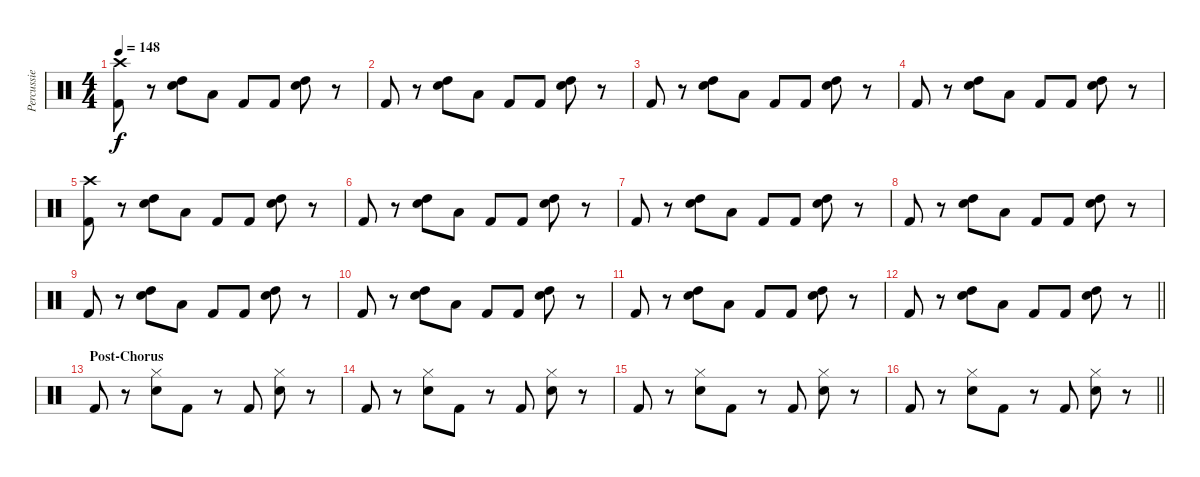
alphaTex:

\track ("Percussie" "Percussie") {instrument percussion}
\staff {score}
\articulation defaults
\ts (4 4)
\tempo 148
\clef neutral
\ks c
("Crash high (hit)" "Kick (hit) 2").8{dy f} r.8 ("Electric Snare (hit)" "High Tom (hit)").8 "Low Tom (hit)".8 "Kick (hit) 2".8 "Kick (hit) 2".8 ("Electric Snare (hit)" "High Tom (hit)").8 r.8 |
"Kick (hit) 2".8 r.8 ("Electric Snare (hit)" "High Tom (hit)").8 "Low Tom (hit)".8 "Kick (hit) 2".8 "Kick (hit) 2".8 ("Electric Snare (hit)" "High Tom (hit)").8 r.8 |
"Kick (hit) 2".8 r.8 ("Electric Snare (hit)" "High Tom (hit)").8 "Low Tom (hit)".8 "Kick (hit) 2".8 "Kick (hit) 2".8 ("Electric Snare (hit)" "High Tom (hit)").8 r.8 |
"Kick (hit) 2".8 r.8 ("Electric Snare (hit)" "High Tom (hit)").8 "Low Tom (hit)".8 "Kick (hit) 2".8 "Kick (hit) 2".8 ("Electric Snare (hit)" "High Tom (hit)").8 r.8 |
("Crash high (hit)" "Kick (hit) 2").8 r.8 ("Electric Snare (hit)" "High Tom (hit)").8 "Low Tom (hit)".8 "Kick (hit) 2".8 "Kick (hit) 2".8 ("Electric Snare (hit)" "High Tom (hit)").8 r.8 |
"Kick (hit) 2".8 r.8 ("Electric Snare (hit)" "High Tom (hit)").8 "Low Tom (hit)".8 "Kick (hit) 2".8 "Kick (hit) 2".8 ("Electric Snare (hit)" "High Tom (hit)").8 r.8 |
"Kick (hit) 2".8 r.8 ("Electric Snare (hit)" "High Tom (hit)").8 "Low Tom (hit)".8 "Kick (hit) 2".8 "Kick (hit) 2".8 ("Electric Snare (hit)" "High Tom (hit)").8 r.8 |
"Kick (hit) 2".8 r.8 ("Electric Snare (hit)" "High Tom (hit)").8 "Low Tom (hit)".8 "Kick (hit) 2".8 "Kick (hit) 2".8 ("Electric Snare (hit)" "High Tom (hit)").8 r.8 |
"Kick (hit) 2".8 r.8 ("Electric Snare (hit)" "High Tom (hit)").8 "Low Tom (hit)".8 "Kick (hit) 2".8 "Kick (hit) 2".8 ("Electric Snare (hit)" "High Tom (hit)").8 r.8 |
"Kick (hit) 2".8 r.8 ("Electric Snare (hit)" "High Tom (hit)").8 "Low Tom (hit)".8 "Kick (hit) 2".8 "Kick (hit) 2".8 ("Electric Snare (hit)" "High Tom (hit)").8 r.8 |
"Kick (hit) 2".8 r.8 ("Electric Snare (hit)" "High Tom (hit)").8 "Low Tom (hit)".8 "Kick (hit) 2".8 "Kick (hit) 2".8 ("Electric Snare (hit)" "High Tom (hit)").8 r.8 |
\barLineRight lightlight "Kick (hit) 2".8
r.8 ("Electric Snare (hit)" "High Tom (hit)").8 "Low Tom (hit)".8 "Kick (hit) 2".8 "Kick (hit) 2".8 ("Electric Snare (hit)" "High Tom (hit)").8 r.8 |
\section ("" "Post-Chorus")
"Kick (hit) 2".8 r.8 ("Hi-Hat (closed)" "Electric Snare (hit)").8 "Kick (hit) 2".8 r.8 "Kick (hit) 2".8 ("Hi-Hat (closed)" "Electric Snare (hit)").8 r.8 |
"Kick (hit) 2".8 r.8 ("Hi-Hat (closed)" "Electric Snare (hit)").8 "Kick (hit) 2".8 r.8 "Kick (hit) 2".8 ("Hi-Hat (closed)" "Electric Snare (hit)").8 r.8 |
"Kick (hit) 2".8 r.8 ("Hi-Hat (closed)" "Electric Snare (hit)").8 "Kick (hit) 2".8 r.8 "Kick (hit) 2".8 ("Hi-Hat (closed)" "Electric Snare (hit)").8 r.8 |
\barLineRight lightlight "Kick (hit) 2".8
r.8 ("Hi-Hat (closed)" "Electric Snare (hit)").8 "Kick (hit) 2".8 r.8 "Kick (hit) 2".8 ("Hi-Hat (closed)" "Electric Snare (hit)").8 r.8
